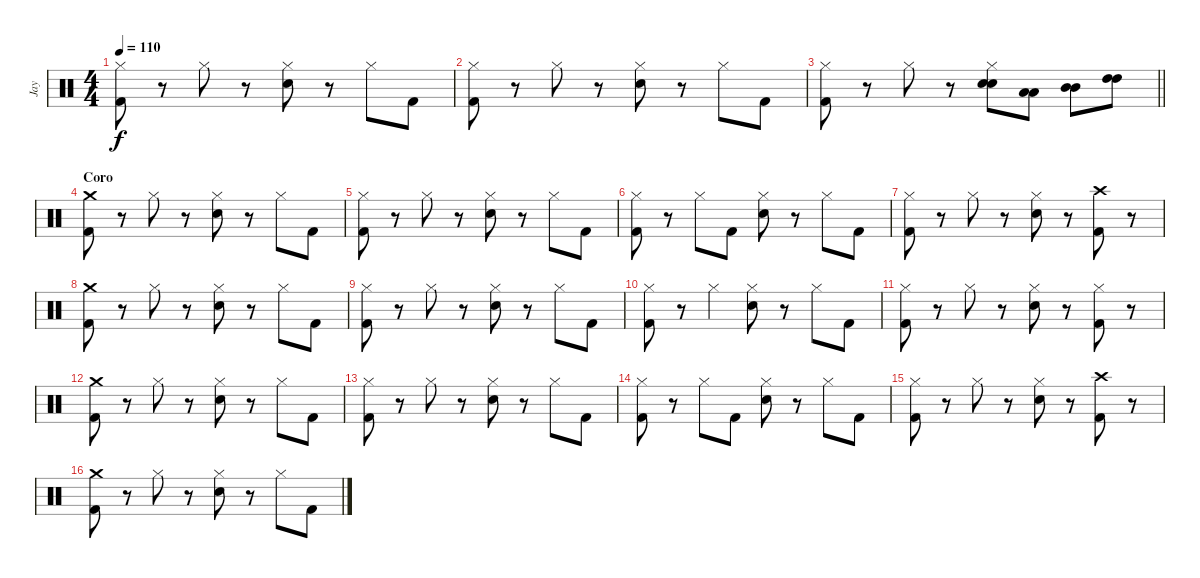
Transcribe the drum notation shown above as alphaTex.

\track ("Jay" "Jay") {instrument percussion}
\staff {score}
\articulation defaults
\ts (4 4)
\tempo 110
\clef neutral
\ks c
("Hi-Hat (closed)" "Kick (hit) 2").8{dy f} r.8 "Hi-Hat (closed)".8 r.8 ("Hi-Hat (closed)" "Snare (hit) 2").8 r.8 "Hi-Hat (closed)".8 "Kick (hit) 2".8 |
("Hi-Hat (closed)" "Kick (hit) 2").8 r.8 "Hi-Hat (closed)".8 r.8 ("Hi-Hat (closed)" "Snare (hit) 2").8 r.8 "Hi-Hat (closed)".8 "Kick (hit) 2".8 |
\barLineRight lightlight
("Hi-Hat (closed)" "Kick (hit) 2").8 r.8 "Hi-Hat (closed)".8 r.8 ("Hi-Hat (closed)" "Snare (hit) 2" "Snare (hit) 2").8 ("Low Tom (hit)" "Low Tom (hit)").8 ("Mid Tom (hit)" "Mid Tom (hit)").8 ("High Tom (hit)" "High Tom (hit)").8 |
\section ("" "Coro")
("Crash medium (hit)" "Kick (hit) 2").8 r.8 "Hi-Hat (closed)".8 r.8 ("Hi-Hat (closed)" "Snare (hit) 2").8 r.8 "Hi-Hat (closed)".8 "Kick (hit) 2".8 |
("Hi-Hat (closed)" "Kick (hit) 2").8 r.8 "Hi-Hat (closed)".8 r.8 ("Hi-Hat (closed)" "Snare (hit) 2").8 r.8 "Hi-Hat (closed)".8 "Kick (hit) 2".8 |
("Hi-Hat (closed)" "Kick (hit) 2").8 r.8 "Hi-Hat (closed)".8 "Kick (hit) 2".8 ("Hi-Hat (closed)" "Snare (hit) 2").8 r.8 "Hi-Hat (closed)".8 "Kick (hit) 2".8 |
("Hi-Hat (closed)" "Kick (hit) 2").8 r.8 "Hi-Hat (closed)".8 r.8 ("Hi-Hat (closed)" "Snare (hit) 2").8 r.8 ("Crash high (hit)" "Kick (hit) 2").8 r.8 |
("Crash medium (hit)" "Kick (hit) 2").8 r.8 "Hi-Hat (closed)".8 r.8 ("Hi-Hat (closed)" "Snare (hit) 2").8 r.8 "Hi-Hat (closed)".8 "Kick (hit) 2".8 |
("Hi-Hat (closed)" "Kick (hit) 2").8 r.8 "Hi-Hat (closed)".8 r.8 ("Hi-Hat (closed)" "Snare (hit) 2").8 r.8 "Hi-Hat (closed)".8 "Kick (hit) 2".8 |
("Hi-Hat (closed)" "Kick (hit) 2").8 r.8 "Hi-Hat (closed)".4 ("Hi-Hat (closed)" "Snare (hit) 2").8 r.8 "Hi-Hat (closed)".8 "Kick (hit) 2".8 |
("Hi-Hat (closed)" "Kick (hit) 2").8 r.8 "Hi-Hat (closed)".8 r.8 ("Hi-Hat (closed)" "Snare (hit) 2").8 r.8 ("Hi-Hat (closed)" "Kick (hit) 2").8 r.8 |
("Crash medium (hit)" "Kick (hit) 2").8 r.8 "Hi-Hat (closed)".8 r.8 ("Hi-Hat (closed)" "Snare (hit) 2").8 r.8 "Hi-Hat (closed)".8 "Kick (hit) 2".8 |
("Hi-Hat (closed)" "Kick (hit) 2").8 r.8 "Hi-Hat (closed)".8 r.8 ("Hi-Hat (closed)" "Snare (hit) 2").8 r.8 "Hi-Hat (closed)".8 "Kick (hit) 2".8 |
("Hi-Hat (closed)" "Kick (hit) 2").8 r.8 "Hi-Hat (closed)".8 "Kick (hit) 2".8 ("Hi-Hat (closed)" "Snare (hit) 2").8 r.8 "Hi-Hat (closed)".8 "Kick (hit) 2".8 |
("Hi-Hat (closed)" "Kick (hit) 2").8 r.8 "Hi-Hat (closed)".8 r.8 ("Hi-Hat (closed)" "Snare (hit) 2").8 r.8 ("Crash high (hit)" "Kick (hit) 2").8 r.8 |
("Crash medium (hit)" "Kick (hit) 2").8 r.8 "Hi-Hat (closed)".8 r.8 ("Hi-Hat (closed)" "Snare (hit) 2").8 r.8 "Hi-Hat (closed)".8 "Kick (hit) 2".8
